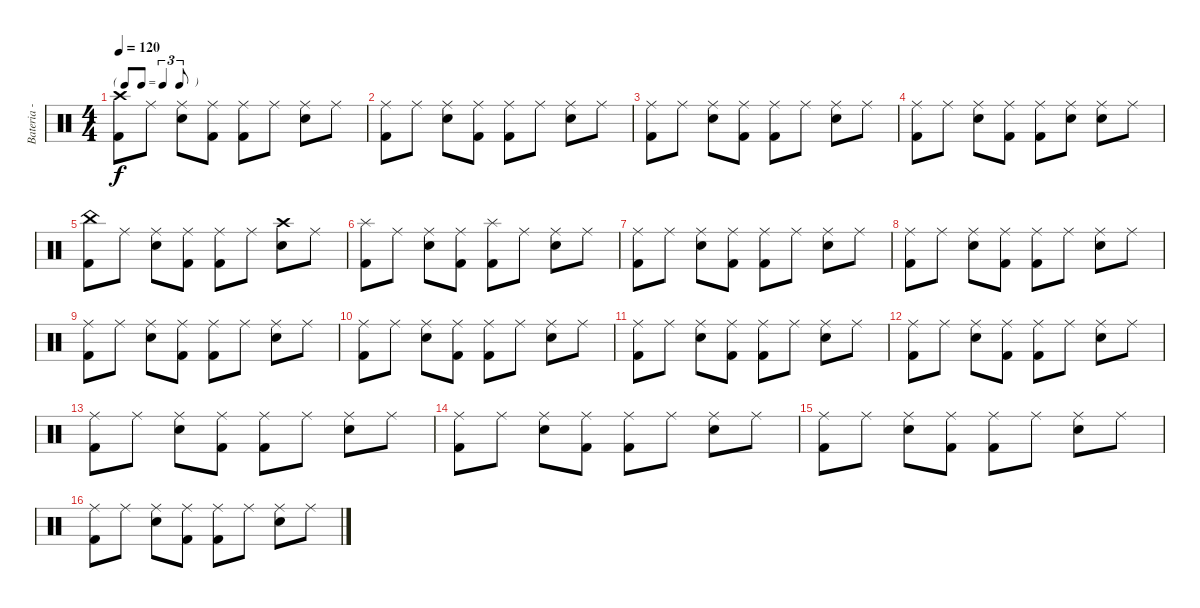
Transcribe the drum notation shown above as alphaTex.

\track ("Bateria - Cris Layton" "Bateria - ") {instrument percussion}
\staff {score}
\articulation defaults
\ts (4 4)
\tf triplet8th
\tempo 120
\clef neutral
\ks c
("Crash high (hit)" "Kick (hit) 2").8{dy f} "Ride (middle)".8 ("Ride (middle)" "Electric Snare (hit)").8 ("Ride (middle)" "Kick (hit) 2").8 ("Ride (middle)" "Kick (hit) 2").8 "Ride (middle)".8 ("Ride (middle)" "Electric Snare (hit)").8 "Ride (middle)".8 |
("Ride (middle)" "Kick (hit) 2").8 "Ride (middle)".8 ("Ride (middle)" "Electric Snare (hit)").8 ("Ride (middle)" "Kick (hit) 2").8 ("Ride (middle)" "Kick (hit) 2").8 "Ride (middle)".8 ("Ride (middle)" "Electric Snare (hit)").8 "Ride (middle)".8 |
("Ride (middle)" "Kick (hit) 2").8 "Ride (middle)".8 ("Ride (middle)" "Electric Snare (hit)").8 ("Ride (middle)" "Kick (hit) 2").8 ("Ride (middle)" "Kick (hit) 2").8 "Ride (middle)".8 ("Ride (middle)" "Electric Snare (hit)").8 "Ride (middle)".8 |
("Ride (middle)" "Kick (hit) 2").8 "Ride (middle)".8 ("Ride (middle)" "Electric Snare (hit)").8 ("Ride (middle)" "Kick (hit) 2").8 ("Ride (middle)" "Kick (hit) 2").8 ("Ride (middle)" "Electric Snare (hit)").8 ("Ride (middle)" "Electric Snare (hit)").8 "Ride (middle)".8 |
("China (hit)" "Kick (hit) 2").8 "Ride (middle)".8 ("Ride (middle)" "Electric Snare (hit)").8 ("Ride (middle)" "Kick (hit) 2").8 ("Ride (middle)" "Kick (hit) 2").8 "Ride (middle)".8 ("Crash high (hit)" "Electric Snare (hit)").8 "Ride (middle)".8 |
("Splash (hit)" "Kick (hit) 2").8 "Ride (middle)".8 ("Ride (middle)" "Electric Snare (hit)").8 ("Ride (middle)" "Kick (hit) 2").8 ("Splash (hit)" "Kick (hit) 2").8 "Ride (middle)".8 ("Ride (middle)" "Electric Snare (hit)").8 "Ride (middle)".8 |
("Ride (middle)" "Kick (hit) 2").8 "Ride (middle)".8 ("Ride (middle)" "Electric Snare (hit)").8 ("Ride (middle)" "Kick (hit) 2").8 ("Ride (middle)" "Kick (hit) 2").8 "Ride (middle)".8 ("Ride (middle)" "Electric Snare (hit)").8 "Ride (middle)".8 |
("Ride (middle)" "Kick (hit) 2").8 "Ride (middle)".8 ("Ride (middle)" "Electric Snare (hit)").8 ("Ride (middle)" "Kick (hit) 2").8 ("Ride (middle)" "Kick (hit) 2").8 "Ride (middle)".8 ("Ride (middle)" "Electric Snare (hit)").8 "Ride (middle)".8 |
("Ride (middle)" "Kick (hit) 2").8 "Ride (middle)".8 ("Ride (middle)" "Electric Snare (hit)").8 ("Ride (middle)" "Kick (hit) 2").8 ("Ride (middle)" "Kick (hit) 2").8 "Ride (middle)".8 ("Ride (middle)" "Electric Snare (hit)").8 "Ride (middle)".8 |
("Ride (middle)" "Kick (hit) 2").8 "Ride (middle)".8 ("Ride (middle)" "Electric Snare (hit)").8 ("Ride (middle)" "Kick (hit) 2").8 ("Ride (middle)" "Kick (hit) 2").8 "Ride (middle)".8 ("Ride (middle)" "Electric Snare (hit)").8 "Ride (middle)".8 |
("Ride (middle)" "Kick (hit) 2").8 "Ride (middle)".8 ("Ride (middle)" "Electric Snare (hit)").8 ("Ride (middle)" "Kick (hit) 2").8 ("Ride (middle)" "Kick (hit) 2").8 "Ride (middle)".8 ("Ride (middle)" "Electric Snare (hit)").8 "Ride (middle)".8 |
("Ride (middle)" "Kick (hit) 2").8 "Ride (middle)".8 ("Ride (middle)" "Electric Snare (hit)").8 ("Ride (middle)" "Kick (hit) 2").8 ("Ride (middle)" "Kick (hit) 2").8 "Ride (middle)".8 ("Ride (middle)" "Electric Snare (hit)").8 "Ride (middle)".8 |
("Ride (middle)" "Kick (hit) 2").8 "Ride (middle)".8 ("Ride (middle)" "Electric Snare (hit)").8 ("Ride (middle)" "Kick (hit) 2").8 ("Ride (middle)" "Kick (hit) 2").8 "Ride (middle)".8 ("Ride (middle)" "Electric Snare (hit)").8 "Ride (middle)".8 |
("Ride (middle)" "Kick (hit) 2").8 "Ride (middle)".8 ("Ride (middle)" "Electric Snare (hit)").8 ("Ride (middle)" "Kick (hit) 2").8 ("Ride (middle)" "Kick (hit) 2").8 "Ride (middle)".8 ("Ride (middle)" "Electric Snare (hit)").8 "Ride (middle)".8 |
("Ride (middle)" "Kick (hit) 2").8 "Ride (middle)".8 ("Ride (middle)" "Electric Snare (hit)").8 ("Ride (middle)" "Kick (hit) 2").8 ("Ride (middle)" "Kick (hit) 2").8 "Ride (middle)".8 ("Ride (middle)" "Electric Snare (hit)").8 "Ride (middle)".8 |
("Ride (middle)" "Kick (hit) 2").8 "Ride (middle)".8 ("Ride (middle)" "Electric Snare (hit)").8 ("Ride (middle)" "Kick (hit) 2").8 ("Ride (middle)" "Kick (hit) 2").8 "Ride (middle)".8 ("Ride (middle)" "Electric Snare (hit)").8 "Ride (middle)".8
